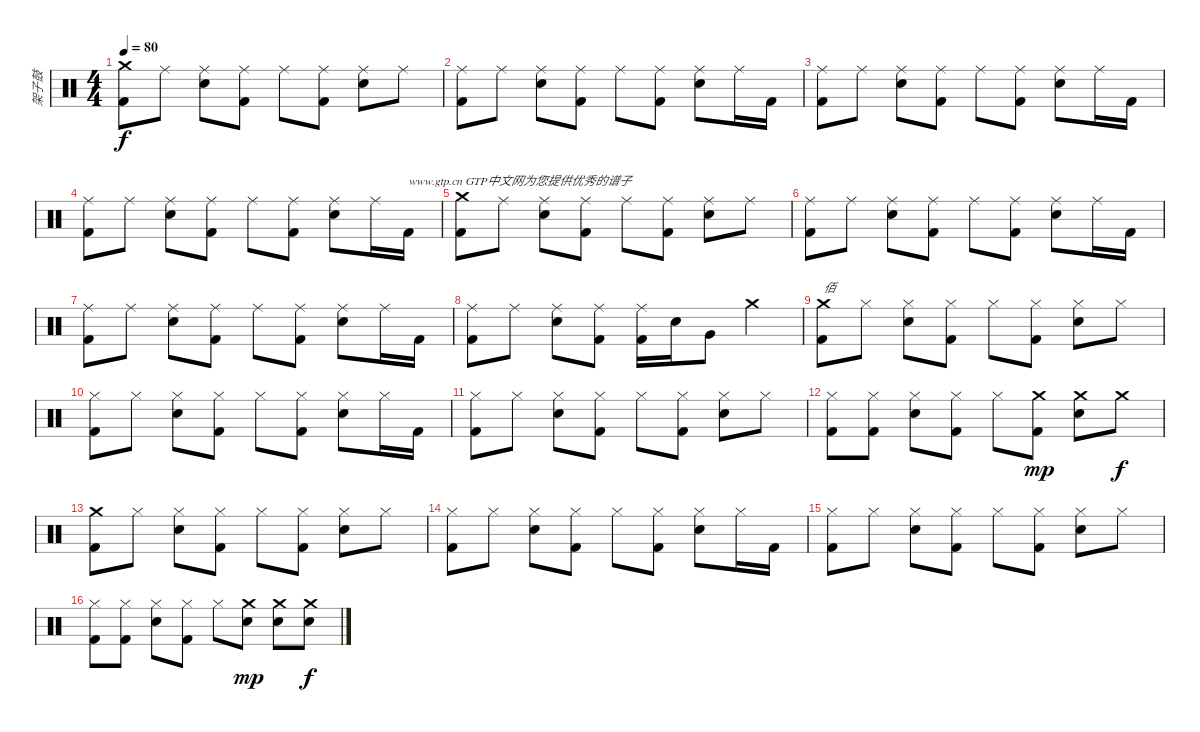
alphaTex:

\track ("架子鼓" "架子鼓") {instrument percussion}
\staff {score}
\articulation defaults
\ts (4 4)
\tempo 80
\clef neutral
\ks c
("Crash medium (hit)" "Kick (hit) 2").8{dy f} "Ride (middle)".8 ("Ride (middle)" "Snare (hit) 2").8 ("Ride (middle)" "Kick (hit) 2").8 "Ride (middle)".8 ("Ride (middle)" "Kick (hit) 2").8 ("Ride (middle)" "Snare (hit) 2").8 "Ride (middle)".8 |
("Ride (middle)" "Kick (hit) 2").8 "Ride (middle)".8 ("Ride (middle)" "Snare (hit) 2").8 ("Ride (middle)" "Kick (hit) 2").8 "Ride (middle)".8 ("Ride (middle)" "Kick (hit) 2").8 ("Ride (middle)" "Snare (hit) 2").8 "Ride (middle)".16 "Kick (hit) 2".16 |
("Ride (middle)" "Kick (hit) 2").8 "Ride (middle)".8 ("Ride (middle)" "Snare (hit) 2").8 ("Ride (middle)" "Kick (hit) 2").8 "Ride (middle)".8 ("Ride (middle)" "Kick (hit) 2").8 ("Ride (middle)" "Snare (hit) 2").8 "Ride (middle)".16 "Kick (hit) 2".16 |
("Ride (middle)" "Kick (hit) 2").8 "Ride (middle)".8 ("Ride (middle)" "Snare (hit) 2").8 ("Ride (middle)" "Kick (hit) 2").8 "Ride (middle)".8 ("Ride (middle)" "Kick (hit) 2").8 ("Ride (middle)" "Snare (hit) 2").8 "Ride (middle)".16 "Kick (hit) 2".16{txt "www.gtp.cn GTP中文网为您提供优秀的谱子"} |
("Crash medium (hit)" "Kick (hit) 2").8 "Ride (middle)".8 ("Ride (middle)" "Snare (hit) 2").8 ("Ride (middle)" "Kick (hit) 2").8 "Ride (middle)".8 ("Ride (middle)" "Kick (hit) 2").8 ("Ride (middle)" "Snare (hit) 2").8 "Ride (middle)".8 |
("Ride (middle)" "Kick (hit) 2").8 "Ride (middle)".8 ("Ride (middle)" "Snare (hit) 2").8 ("Ride (middle)" "Kick (hit) 2").8 "Ride (middle)".8 ("Ride (middle)" "Kick (hit) 2").8 ("Ride (middle)" "Snare (hit) 2").8 "Ride (middle)".16 "Kick (hit) 2".16 |
("Ride (middle)" "Kick (hit) 2").8 "Ride (middle)".8 ("Ride (middle)" "Snare (hit) 2").8 ("Ride (middle)" "Kick (hit) 2").8 "Ride (middle)".8 ("Ride (middle)" "Kick (hit) 2").8 ("Ride (middle)" "Snare (hit) 2").8 "Ride (middle)".16 "Kick (hit) 2".16 |
("Ride (middle)" "Kick (hit) 2").8 "Ride (middle)".8 ("Ride (middle)" "Snare (hit) 2").8 ("Ride (middle)" "Kick (hit) 2").8 ("Ride (middle)" "Kick (hit) 2").16 "Snare (hit) 2".16 "Very Low Tom (hit)".8 "Crash medium (hit)".4 |
("Crash medium (hit)" "Kick (hit) 2").8{txt "佰"} "Hi-Hat (closed)".8 ("Hi-Hat (closed)" "Snare (hit) 2").8 ("Hi-Hat (closed)" "Kick (hit) 2").8 "Hi-Hat (closed)".8 ("Hi-Hat (closed)" "Kick (hit) 2").8 ("Hi-Hat (closed)" "Snare (hit) 2").8 "Hi-Hat (closed)".8 |
("Hi-Hat (closed)" "Kick (hit) 2").8 "Hi-Hat (closed)".8 ("Hi-Hat (closed)" "Snare (hit) 2").8 ("Hi-Hat (closed)" "Kick (hit) 2").8 "Hi-Hat (closed)".8 ("Hi-Hat (closed)" "Kick (hit) 2").8 ("Hi-Hat (closed)" "Snare (hit) 2").8 "Hi-Hat (closed)".16 "Kick (hit) 2".16 |
("Hi-Hat (closed)" "Kick (hit) 2").8 "Hi-Hat (closed)".8 ("Hi-Hat (closed)" "Snare (hit) 2").8 ("Hi-Hat (closed)" "Kick (hit) 2").8 "Hi-Hat (closed)".8 ("Hi-Hat (closed)" "Kick (hit) 2").8 ("Hi-Hat (closed)" "Snare (hit) 2").8 "Hi-Hat (closed)".8 |
("Hi-Hat (closed)" "Kick (hit) 2").8 ("Hi-Hat (closed)" "Kick (hit) 2").8 ("Hi-Hat (closed)" "Snare (hit) 2").8 ("Hi-Hat (closed)" "Kick (hit) 2").8 "Hi-Hat (closed)".8 ("Crash medium (hit)" "Kick (hit) 2").8{dy mp} ("Crash medium (hit)" "Snare (hit) 2").8 "Crash medium (hit)".8{dy f} |
("Crash medium (hit)" "Kick (hit) 2").8 "Hi-Hat (closed)".8 ("Hi-Hat (closed)" "Snare (hit) 2").8 ("Hi-Hat (closed)" "Kick (hit) 2").8 "Hi-Hat (closed)".8 ("Hi-Hat (closed)" "Kick (hit) 2").8 ("Hi-Hat (closed)" "Snare (hit) 2").8 "Hi-Hat (closed)".8 |
("Hi-Hat (closed)" "Kick (hit) 2").8 "Hi-Hat (closed)".8 ("Hi-Hat (closed)" "Snare (hit) 2").8 ("Hi-Hat (closed)" "Kick (hit) 2").8 "Hi-Hat (closed)".8 ("Hi-Hat (closed)" "Kick (hit) 2").8 ("Hi-Hat (closed)" "Snare (hit) 2").8 "Hi-Hat (closed)".16 "Kick (hit) 2".16 |
("Hi-Hat (closed)" "Kick (hit) 2").8 "Hi-Hat (closed)".8 ("Hi-Hat (closed)" "Snare (hit) 2").8 ("Hi-Hat (closed)" "Kick (hit) 2").8 "Hi-Hat (closed)".8 ("Hi-Hat (closed)" "Kick (hit) 2").8 ("Hi-Hat (closed)" "Snare (hit) 2").8 "Hi-Hat (closed)".8 |
("Hi-Hat (closed)" "Kick (hit) 2").8 ("Hi-Hat (closed)" "Kick (hit) 2").8 ("Hi-Hat (closed)" "Snare (hit) 2").8 ("Hi-Hat (closed)" "Kick (hit) 2").8 "Hi-Hat (closed)".8 ("Crash medium (hit)" "Snare (hit) 2").8{dy mp} ("Crash medium (hit)" "Snare (hit) 2").8 ("Crash medium (hit)" "Snare (hit) 2").8{dy f}
